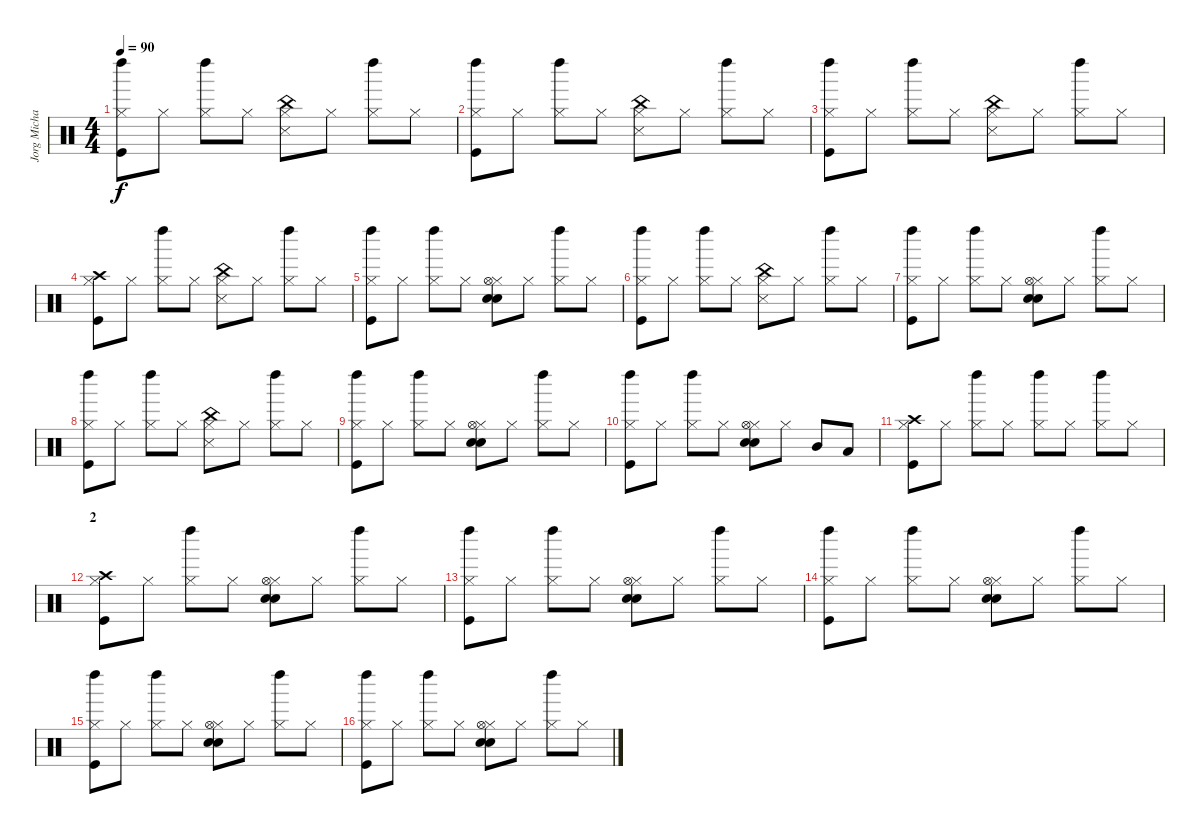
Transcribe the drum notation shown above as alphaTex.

\track ("Jorg Michael - Batteria" "Jorg Micha") {instrument percussion}
\staff {score}
\articulation defaults
\ts (4 4)
\tempo 90
\clef neutral
\ks c
("Kick (hit)" "Hi-Hat (closed)" "Left Maraca (hit)").8{dy f} "Hi-Hat (closed)".8 ("Hi-Hat (closed)" "Left Maraca (hit)").8 "Hi-Hat (closed)".8 ("China (hit)" "Hi-Hat (closed)" "Snare (side stick) 3").8 "Hi-Hat (closed)".8 ("Hi-Hat (closed)" "Left Maraca (hit)").8 "Hi-Hat (closed)".8 |
("Kick (hit)" "Hi-Hat (closed)" "Left Maraca (hit)").8 "Hi-Hat (closed)".8 ("Hi-Hat (closed)" "Left Maraca (hit)").8 "Hi-Hat (closed)".8 ("China (hit)" "Hi-Hat (closed)" "Snare (side stick) 3").8 "Hi-Hat (closed)".8 ("Hi-Hat (closed)" "Left Maraca (hit)").8 "Hi-Hat (closed)".8 |
("Kick (hit)" "Hi-Hat (closed)" "Left Maraca (hit)").8 "Hi-Hat (closed)".8 ("Hi-Hat (closed)" "Left Maraca (hit)").8 "Hi-Hat (closed)".8 ("China (hit)" "Hi-Hat (closed)" "Snare (side stick) 3").8 "Hi-Hat (closed)".8 ("Hi-Hat (closed)" "Left Maraca (hit)").8 "Hi-Hat (closed)".8 |
("Kick (hit)" "Hi-Hat (closed)" "Crash high (hit)").8 "Hi-Hat (closed)".8 ("Hi-Hat (closed)" "Left Maraca (hit)").8 "Hi-Hat (closed)".8 ("China (hit)" "Hi-Hat (closed)" "Snare (side stick) 3").8 "Hi-Hat (closed)".8 ("Hi-Hat (closed)" "Left Maraca (hit)").8 "Hi-Hat (closed)".8 |
("Kick (hit)" "Hi-Hat (closed)" "Left Maraca (hit)").8 "Hi-Hat (closed)".8 ("Hi-Hat (closed)" "Left Maraca (hit)").8 "Hi-Hat (closed)".8 ("Snare (hit) 2" "Hi-Hat (closed)" "Electric Snare (hit)" "Hi-Hat (open)").8 "Hi-Hat (closed)".8 ("Hi-Hat (closed)" "Left Maraca (hit)").8 "Hi-Hat (closed)".8 |
("Kick (hit)" "Hi-Hat (closed)" "Left Maraca (hit)").8 "Hi-Hat (closed)".8 ("Hi-Hat (closed)" "Left Maraca (hit)").8 "Hi-Hat (closed)".8 ("China (hit)" "Hi-Hat (closed)" "Snare (side stick) 3").8 "Hi-Hat (closed)".8 ("Hi-Hat (closed)" "Left Maraca (hit)").8 "Hi-Hat (closed)".8 |
("Kick (hit)" "Hi-Hat (closed)" "Left Maraca (hit)").8 "Hi-Hat (closed)".8 ("Hi-Hat (closed)" "Left Maraca (hit)").8 "Hi-Hat (closed)".8 ("Snare (hit) 2" "Hi-Hat (closed)" "Electric Snare (hit)" "Hi-Hat (open)").8 "Hi-Hat (closed)".8 ("Hi-Hat (closed)" "Left Maraca (hit)").8 "Hi-Hat (closed)".8 |
("Kick (hit)" "Hi-Hat (closed)" "Left Maraca (hit)").8 "Hi-Hat (closed)".8 ("Hi-Hat (closed)" "Left Maraca (hit)").8 "Hi-Hat (closed)".8 ("China (hit)" "Hi-Hat (closed)" "Snare (side stick) 3").8 "Hi-Hat (closed)".8 ("Hi-Hat (closed)" "Left Maraca (hit)").8 "Hi-Hat (closed)".8 |
("Kick (hit)" "Hi-Hat (closed)" "Left Maraca (hit)").8 "Hi-Hat (closed)".8 ("Hi-Hat (closed)" "Left Maraca (hit)").8 "Hi-Hat (closed)".8 ("Snare (hit) 2" "Hi-Hat (closed)" "Electric Snare (hit)" "Hi-Hat (open)").8 "Hi-Hat (closed)".8 ("Hi-Hat (closed)" "Left Maraca (hit)").8 "Hi-Hat (closed)".8 |
("Kick (hit)" "Hi-Hat (closed)" "Left Maraca (hit)").8 "Hi-Hat (closed)".8 ("Hi-Hat (closed)" "Left Maraca (hit)").8 "Hi-Hat (closed)".8 ("Snare (hit) 2" "Hi-Hat (closed)" "Electric Snare (hit)" "Hi-Hat (open)").8 "Hi-Hat (closed)".8 "Mid Tom (hit)".8 "Low Tom (hit)".8 |
("Kick (hit)" "Hi-Hat (closed)" "Crash high (hit)").8 "Hi-Hat (closed)".8 ("Hi-Hat (closed)" "Left Maraca (hit)").8 "Hi-Hat (closed)".8 ("Hi-Hat (closed)" "Left Maraca (hit)").8 "Hi-Hat (closed)".8 ("Hi-Hat (closed)" "Left Maraca (hit)").8 "Hi-Hat (closed)".8 |
\section ("" "2")
("Kick (hit)" "Hi-Hat (closed)" "Crash high (hit)").8 "Hi-Hat (closed)".8 ("Hi-Hat (closed)" "Left Maraca (hit)").8 "Hi-Hat (closed)".8 ("Snare (hit) 2" "Hi-Hat (closed)" "Electric Snare (hit)" "Hi-Hat (open)").8 "Hi-Hat (closed)".8 ("Hi-Hat (closed)" "Left Maraca (hit)").8 "Hi-Hat (closed)".8 |
("Kick (hit)" "Hi-Hat (closed)" "Left Maraca (hit)").8 "Hi-Hat (closed)".8 ("Hi-Hat (closed)" "Left Maraca (hit)").8 "Hi-Hat (closed)".8 ("Snare (hit) 2" "Hi-Hat (closed)" "Electric Snare (hit)" "Hi-Hat (open)").8 "Hi-Hat (closed)".8 ("Hi-Hat (closed)" "Left Maraca (hit)").8 "Hi-Hat (closed)".8 |
("Kick (hit)" "Hi-Hat (closed)" "Left Maraca (hit)").8 "Hi-Hat (closed)".8 ("Hi-Hat (closed)" "Left Maraca (hit)").8 "Hi-Hat (closed)".8 ("Snare (hit) 2" "Hi-Hat (closed)" "Electric Snare (hit)" "Hi-Hat (open)").8 "Hi-Hat (closed)".8 ("Hi-Hat (closed)" "Left Maraca (hit)").8 "Hi-Hat (closed)".8 |
("Kick (hit)" "Hi-Hat (closed)" "Left Maraca (hit)").8 "Hi-Hat (closed)".8 ("Hi-Hat (closed)" "Left Maraca (hit)").8 "Hi-Hat (closed)".8 ("Snare (hit) 2" "Hi-Hat (closed)" "Electric Snare (hit)" "Hi-Hat (open)").8 "Hi-Hat (closed)".8 ("Hi-Hat (closed)" "Left Maraca (hit)").8 "Hi-Hat (closed)".8 |
("Kick (hit)" "Hi-Hat (closed)" "Left Maraca (hit)").8 "Hi-Hat (closed)".8 ("Hi-Hat (closed)" "Left Maraca (hit)").8 "Hi-Hat (closed)".8 ("Snare (hit) 2" "Hi-Hat (closed)" "Electric Snare (hit)" "Hi-Hat (open)").8 "Hi-Hat (closed)".8 ("Hi-Hat (closed)" "Left Maraca (hit)").8 "Hi-Hat (closed)".8
